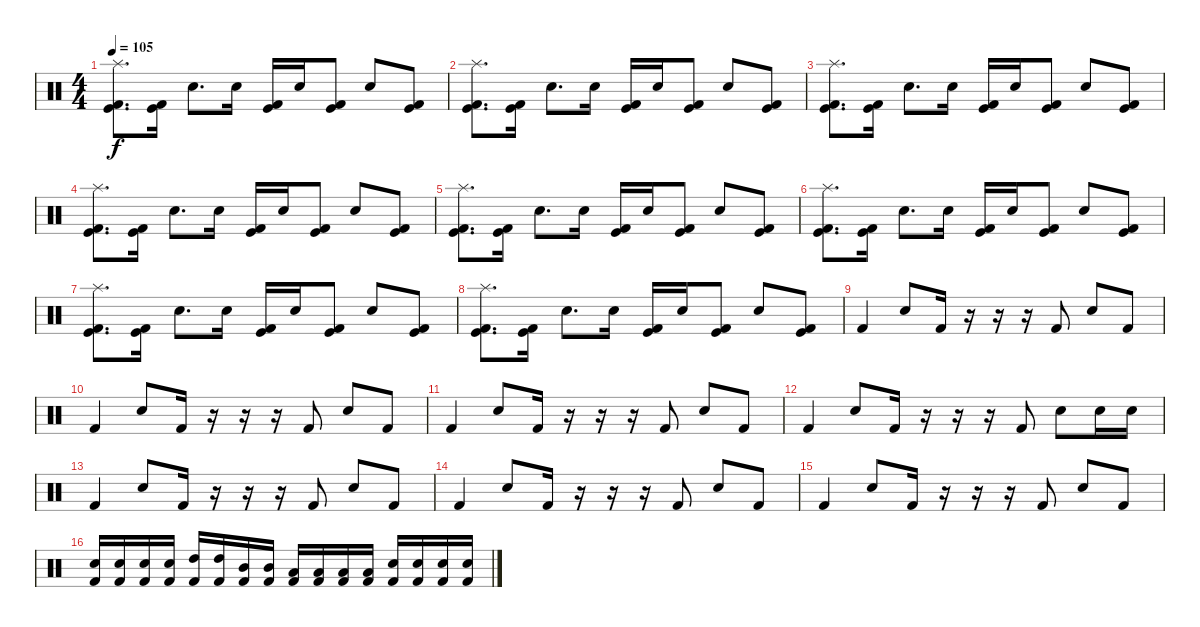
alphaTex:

\track "" {solo instrument percussion}
\staff {score}
\articulation defaults
\ts (4 4)
\tempo 105
\clef neutral
\ks c
("Splash (hit)" "Kick (hit)" "Kick (hit) 2").8{d dy f} ("Kick (hit)" "Kick (hit) 2").16 "Electric Snare (hit)".8{d} "Electric Snare (hit)".16 ("Kick (hit)" "Kick (hit) 2").16 "Electric Snare (hit)".16 ("Kick (hit)" "Kick (hit) 2").8 "Electric Snare (hit)".8 ("Kick (hit)" "Kick (hit) 2").8 |
("Splash (hit)" "Kick (hit)" "Kick (hit) 2").8{d} ("Kick (hit)" "Kick (hit) 2").16 "Electric Snare (hit)".8{d} "Electric Snare (hit)".16 ("Kick (hit)" "Kick (hit) 2").16 "Electric Snare (hit)".16 ("Kick (hit)" "Kick (hit) 2").8 "Electric Snare (hit)".8 ("Kick (hit)" "Kick (hit) 2").8 |
("Splash (hit)" "Kick (hit)" "Kick (hit) 2").8{d} ("Kick (hit)" "Kick (hit) 2").16 "Electric Snare (hit)".8{d} "Electric Snare (hit)".16 ("Kick (hit)" "Kick (hit) 2").16 "Electric Snare (hit)".16 ("Kick (hit)" "Kick (hit) 2").8 "Electric Snare (hit)".8 ("Kick (hit)" "Kick (hit) 2").8 |
("Splash (hit)" "Kick (hit)" "Kick (hit) 2").8{d} ("Kick (hit)" "Kick (hit) 2").16 "Electric Snare (hit)".8{d} "Electric Snare (hit)".16 ("Kick (hit)" "Kick (hit) 2").16 "Electric Snare (hit)".16 ("Kick (hit)" "Kick (hit) 2").8 "Electric Snare (hit)".8 ("Kick (hit)" "Kick (hit) 2").8 |
("Splash (hit)" "Kick (hit)" "Kick (hit) 2").8{d} ("Kick (hit)" "Kick (hit) 2").16 "Electric Snare (hit)".8{d} "Electric Snare (hit)".16 ("Kick (hit)" "Kick (hit) 2").16 "Electric Snare (hit)".16 ("Kick (hit)" "Kick (hit) 2").8 "Electric Snare (hit)".8 ("Kick (hit)" "Kick (hit) 2").8 |
("Splash (hit)" "Kick (hit)" "Kick (hit) 2").8{d} ("Kick (hit)" "Kick (hit) 2").16 "Electric Snare (hit)".8{d} "Electric Snare (hit)".16 ("Kick (hit)" "Kick (hit) 2").16 "Electric Snare (hit)".16 ("Kick (hit)" "Kick (hit) 2").8 "Electric Snare (hit)".8 ("Kick (hit)" "Kick (hit) 2").8 |
("Splash (hit)" "Kick (hit)" "Kick (hit) 2").8{d} ("Kick (hit)" "Kick (hit) 2").16 "Electric Snare (hit)".8{d} "Electric Snare (hit)".16 ("Kick (hit)" "Kick (hit) 2").16 "Electric Snare (hit)".16 ("Kick (hit)" "Kick (hit) 2").8 "Electric Snare (hit)".8 ("Kick (hit)" "Kick (hit) 2").8 |
("Splash (hit)" "Kick (hit)" "Kick (hit) 2").8{d} ("Kick (hit)" "Kick (hit) 2").16 "Electric Snare (hit)".8{d} "Electric Snare (hit)".16 ("Kick (hit)" "Kick (hit) 2").16 "Electric Snare (hit)".16 ("Kick (hit)" "Kick (hit) 2").8 "Electric Snare (hit)".8 ("Kick (hit)" "Kick (hit) 2").8 |
"Kick (hit) 2".4 "Electric Snare (hit)".8 "Kick (hit) 2".16 r.16 r.16 r.16 "Kick (hit) 2".8 "Electric Snare (hit)".8 "Kick (hit) 2".8 |
"Kick (hit) 2".4 "Electric Snare (hit)".8 "Kick (hit) 2".16 r.16 r.16 r.16 "Kick (hit) 2".8 "Electric Snare (hit)".8 "Kick (hit) 2".8 |
"Kick (hit) 2".4 "Electric Snare (hit)".8 "Kick (hit) 2".16 r.16 r.16 r.16 "Kick (hit) 2".8 "Electric Snare (hit)".8 "Kick (hit) 2".8 |
"Kick (hit) 2".4 "Electric Snare (hit)".8 "Kick (hit) 2".16 r.16 r.16 r.16 "Kick (hit) 2".8 "Electric Snare (hit)".8 "Electric Snare (hit)".16 "Electric Snare (hit)".16 |
"Kick (hit) 2".4 "Electric Snare (hit)".8 "Kick (hit) 2".16 r.16 r.16 r.16 "Kick (hit) 2".8 "Electric Snare (hit)".8 "Kick (hit) 2".8 |
"Kick (hit) 2".4 "Electric Snare (hit)".8 "Kick (hit) 2".16 r.16 r.16 r.16 "Kick (hit) 2".8 "Electric Snare (hit)".8 "Kick (hit) 2".8 |
"Kick (hit) 2".4 "Electric Snare (hit)".8 "Kick (hit) 2".16 r.16 r.16 r.16 "Kick (hit) 2".8 "Electric Snare (hit)".8 "Kick (hit) 2".8 |
("Electric Snare (hit)" "Kick (hit) 2").16 ("Electric Snare (hit)" "Kick (hit) 2").16 ("Electric Snare (hit)" "Kick (hit) 2").16 ("Electric Snare (hit)" "Kick (hit) 2").16 ("High Tom (hit)" "Kick (hit) 2").16 ("High Tom (hit)" "Kick (hit) 2").16 ("Mid Tom (hit)" "Kick (hit) 2").16 ("Mid Tom (hit)" "Kick (hit) 2").16 ("Low Tom (hit)" "Kick (hit) 2").16 ("Low Tom (hit)" "Kick (hit) 2").16 ("Low Floor Tom (hit)" "Kick (hit) 2").16 ("Low Floor Tom (hit)" "Kick (hit) 2").16 ("Electric Snare (hit)" "Kick (hit) 2").16 ("Electric Snare (hit)" "Kick (hit) 2").16 ("Electric Snare (hit)" "Kick (hit) 2").16 ("Electric Snare (hit)" "Kick (hit) 2").16
